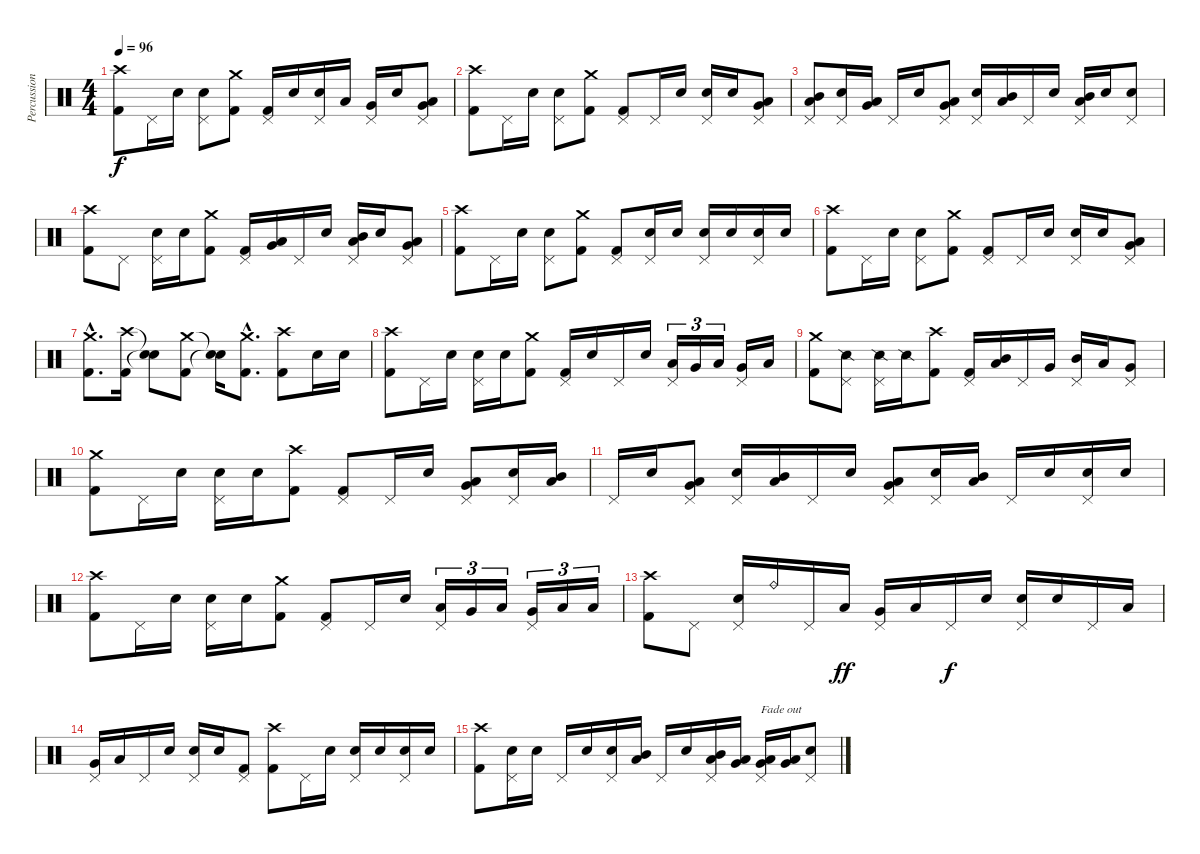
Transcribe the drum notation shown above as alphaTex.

\track ("Percussion" "Percussion") {instrument percussion}
\staff {score}
\articulation defaults
\ts (4 4)
\tempo 96
\clef neutral
\ks c
("Crash high (hit)" "Kick (hit) 2").8{dy f} "Pedal Hi-Hat (hit)".16 "Electric Snare (hit)".16 ("Pedal Hi-Hat (hit)" "Electric Snare (hit)").8 ("Crash medium (hit)" "Kick (hit) 2").8 ("Pedal Hi-Hat (hit)" "Kick (hit) 2").16 "Electric Snare (hit)".16 ("Pedal Hi-Hat (hit)" "Electric Snare (hit)").16 "Low Tom (hit)".16 ("Pedal Hi-Hat (hit)" "Very Low Tom (hit)").16 "Electric Snare (hit)".16 ("Pedal Hi-Hat (hit)" "Very Low Tom (hit)" "Low Floor Tom (hit)").8 |
("Crash high (hit)" "Kick (hit) 2").8 "Pedal Hi-Hat (hit)".16 "Electric Snare (hit)".16 ("Pedal Hi-Hat (hit)" "Electric Snare (hit)").8 ("Crash medium (hit)" "Kick (hit) 2").8 ("Pedal Hi-Hat (hit)" "Kick (hit) 2").8 "Pedal Hi-Hat (hit)".16 "Electric Snare (hit)".16 ("Pedal Hi-Hat (hit)" "Electric Snare (hit)").16 "Electric Snare (hit)".16 ("Pedal Hi-Hat (hit)" "Low Tom (hit)" "Very Low Tom (hit)").8 |
("Pedal Hi-Hat (hit)" "Mid Tom (hit)" "Low Tom (hit)").8 ("Pedal Hi-Hat (hit)" "Electric Snare (hit)").16 ("Low Tom (hit)" "Very Low Tom (hit)").16 "Pedal Hi-Hat (hit)".16 "Electric Snare (hit)".16 ("Pedal Hi-Hat (hit)" "Low Tom (hit)" "Very Low Tom (hit)").8 ("Pedal Hi-Hat (hit)" "Electric Snare (hit)").16 ("Mid Tom (hit)" "Low Tom (hit)").16 "Pedal Hi-Hat (hit)".16 "Electric Snare (hit)".16 ("Pedal Hi-Hat (hit)" "Mid Tom (hit)" "Low Tom (hit)").16 "Electric Snare (hit)".16 ("Pedal Hi-Hat (hit)" "Electric Snare (hit)").8 |
("Crash high (hit)" "Kick (hit) 2").8 "Pedal Hi-Hat (hit)".8 ("Pedal Hi-Hat (hit)" "Electric Snare (hit)").16 "Electric Snare (hit)".16 ("Crash medium (hit)" "Kick (hit) 2").8 ("Pedal Hi-Hat (hit)" "Kick (hit) 2").16 ("Low Tom (hit)" "Very Low Tom (hit)").16 "Pedal Hi-Hat (hit)".16 "Electric Snare (hit)".16 ("Pedal Hi-Hat (hit)" "Mid Tom (hit)" "Low Tom (hit)").16 "Electric Snare (hit)".16 ("Pedal Hi-Hat (hit)" "Low Tom (hit)" "Very Low Tom (hit)").8 |
("Crash high (hit)" "Kick (hit) 2").8 "Pedal Hi-Hat (hit)".16 "Electric Snare (hit)".16 ("Pedal Hi-Hat (hit)" "Electric Snare (hit)").8 ("Crash medium (hit)" "Kick (hit) 2").8 ("Pedal Hi-Hat (hit)" "Kick (hit) 2").8 ("Pedal Hi-Hat (hit)" "Electric Snare (hit)").16 "Electric Snare (hit)".16 ("Pedal Hi-Hat (hit)" "Electric Snare (hit)").16 "Electric Snare (hit)".16 ("Pedal Hi-Hat (hit)" "Electric Snare (hit)").16 "Electric Snare (hit)".16 |
("Crash high (hit)" "Kick (hit) 2").8 "Pedal Hi-Hat (hit)".16 "Electric Snare (hit)".16 ("Pedal Hi-Hat (hit)" "Electric Snare (hit)").8 ("Crash medium (hit)" "Kick (hit) 2").8 ("Pedal Hi-Hat (hit)" "Kick (hit) 2").8 "Pedal Hi-Hat (hit)".16 "Electric Snare (hit)".16 ("Pedal Hi-Hat (hit)" "Electric Snare (hit)").16 "Electric Snare (hit)".16 ("Pedal Hi-Hat (hit)" "Low Tom (hit)" "Very Low Tom (hit)").8 |
("Crash medium (hit)"{hac} "Kick (hit) 2"{hac}).8{d} ("Crash high (hit)" "Kick (hit) 2").16 ("Snare (hit)"{t} "Snare (hit)"{t}).8 ("Crash medium (hit)" "Kick (hit) 2").8 ("Snare (hit)"{t} "Snare (hit)"{t}).16 ("Crash medium (hit)"{hac} "Kick (hit) 2"{hac}).8{d} ("Crash high (hit)" "Kick (hit) 2").8 "Electric Snare (hit)".16 "Electric Snare (hit)".16 |
("Crash high (hit)" "Kick (hit) 2").8 "Pedal Hi-Hat (hit)".16 "Electric Snare (hit)".16 ("Pedal Hi-Hat (hit)" "Electric Snare (hit)").16 "Electric Snare (hit)".16 ("Crash medium (hit)" "Kick (hit) 2").8 ("Pedal Hi-Hat (hit)" "Kick (hit) 2").16 "Electric Snare (hit)".16 "Pedal Hi-Hat (hit)".16 "Electric Snare (hit)".16 ("Pedal Hi-Hat (hit)" "Low Tom (hit)").16{tu (3 2)} "Very Low Tom (hit)".16{tu (3 2)} "Low Floor Tom (hit)".16{tu (3 2)} ("Pedal Hi-Hat (hit)" "Very Low Tom (hit)").16 "Low Floor Tom (hit)".16 |
("Crash medium (hit)" "Kick (hit) 2").8 ("Pedal Hi-Hat (hit)" "Snare (side stick) 2").8 ("Pedal Hi-Hat (hit)" "Snare (side stick) 2").16 "Snare (side stick) 2".16 ("Crash high (hit)" "Kick (hit) 2").8 ("Pedal Hi-Hat (hit)" "Kick (hit) 2").16 ("Mid Tom (hit)" "Low Tom (hit)").16 "Pedal Hi-Hat (hit)".16 "Very Low Tom (hit)".16 ("Pedal Hi-Hat (hit)" "Mid Tom (hit)").16 "Low Tom (hit)".16 ("Pedal Hi-Hat (hit)" "Very Low Tom (hit)").8 |
("Crash medium (hit)" "Kick (hit) 2").8 "Pedal Hi-Hat (hit)".16 "Electric Snare (hit)".16 ("Pedal Hi-Hat (hit)" "Electric Snare (hit)").16 "Electric Snare (hit)".16 ("Crash high (hit)" "Kick (hit) 2").8 ("Pedal Hi-Hat (hit)" "Kick (hit) 2").8 "Pedal Hi-Hat (hit)".16 "Electric Snare (hit)".16 ("Pedal Hi-Hat (hit)" "Low Tom (hit)" "Very Low Tom (hit)").8 ("Pedal Hi-Hat (hit)" "Electric Snare (hit)").16 ("Mid Tom (hit)" "Low Tom (hit)").16 |
"Pedal Hi-Hat (hit)".16 "Electric Snare (hit)".16 ("Pedal Hi-Hat (hit)" "Low Tom (hit)" "Very Low Tom (hit)").8 ("Pedal Hi-Hat (hit)" "Electric Snare (hit)").16 ("Mid Tom (hit)" "Low Tom (hit)").16 "Pedal Hi-Hat (hit)".16 "Electric Snare (hit)".16 ("Pedal Hi-Hat (hit)" "Low Tom (hit)" "Very Low Tom (hit)").8 ("Pedal Hi-Hat (hit)" "Electric Snare (hit)").16 ("Mid Tom (hit)" "Low Tom (hit)").16 "Pedal Hi-Hat (hit)".16 "Electric Snare (hit)".16 ("Pedal Hi-Hat (hit)" "Electric Snare (hit)").16 "Electric Snare (hit)".16 |
("Crash high (hit)" "Kick (hit) 2").8 "Pedal Hi-Hat (hit)".16 "Electric Snare (hit)".16 ("Pedal Hi-Hat (hit)" "Electric Snare (hit)").16 "Electric Snare (hit)".16 ("Crash medium (hit)" "Kick (hit) 2").8 ("Pedal Hi-Hat (hit)" "Kick (hit) 2").8 "Pedal Hi-Hat (hit)".16 "Electric Snare (hit)".16 ("Pedal Hi-Hat (hit)" "Low Tom (hit)").16{tu (3 2)} "Very Low Tom (hit)".16{tu (3 2)} "Low Floor Tom (hit)".16{tu (3 2)} ("Pedal Hi-Hat (hit)" "Very Low Tom (hit)").16{tu (3 2)} "Low Floor Tom (hit)".16{tu (3 2)} "Low Floor Tom (hit)".16{tu (3 2)} |
("Crash high (hit)" "Kick (hit) 2").8 "Pedal Hi-Hat (hit)".8 ("Pedal Hi-Hat (hit)" "Electric Snare (hit)").16 "Ride (bell)".16 "Pedal Hi-Hat (hit)".16 "Low Tom (hit)".16{dy ff} ("Pedal Hi-Hat (hit)" "Very Low Tom (hit)").16 "Low Tom (hit)".16 "Pedal Hi-Hat (hit)".16{dy f} "Electric Snare (hit)".16 ("Pedal Hi-Hat (hit)" "Electric Snare (hit)").16 "Electric Snare (hit)".16 "Pedal Hi-Hat (hit)".16 "Low Tom (hit)".16 |
("Pedal Hi-Hat (hit)" "Very Low Tom (hit)").16 "Low Tom (hit)".16 "Pedal Hi-Hat (hit)".16 "Electric Snare (hit)".16 ("Pedal Hi-Hat (hit)" "Electric Snare (hit)").16 "Electric Snare (hit)".16 ("Pedal Hi-Hat (hit)" "Kick (hit) 2").8 ("Crash high (hit)" "Kick (hit) 2").8 "Pedal Hi-Hat (hit)".16 "Electric Snare (hit)".16 ("Pedal Hi-Hat (hit)" "Electric Snare (hit)").16 "Electric Snare (hit)".16 ("Pedal Hi-Hat (hit)" "Electric Snare (hit)").16 "Electric Snare (hit)".16 |
("Crash high (hit)" "Kick (hit) 2").8 ("Pedal Hi-Hat (hit)" "Electric Snare (hit)").16 "Electric Snare (hit)".16 "Pedal Hi-Hat (hit)".16 "Electric Snare (hit)".16 ("Pedal Hi-Hat (hit)" "Electric Snare (hit)").16 ("Mid Tom (hit)" "Low Tom (hit)").16 "Pedal Hi-Hat (hit)".16 "Electric Snare (hit)".16 ("Pedal Hi-Hat (hit)" "Mid Tom (hit)" "Low Tom (hit)").16 ("Low Tom (hit)" "Very Low Tom (hit)").16 ("Pedal Hi-Hat (hit)" "Very Low Tom (hit)" "Low Floor Tom (hit)").16{txt "Fade out"} ("Low Tom (hit)" "Very Low Tom (hit)").16 ("Pedal Hi-Hat (hit)" "Electric Snare (hit)").8
